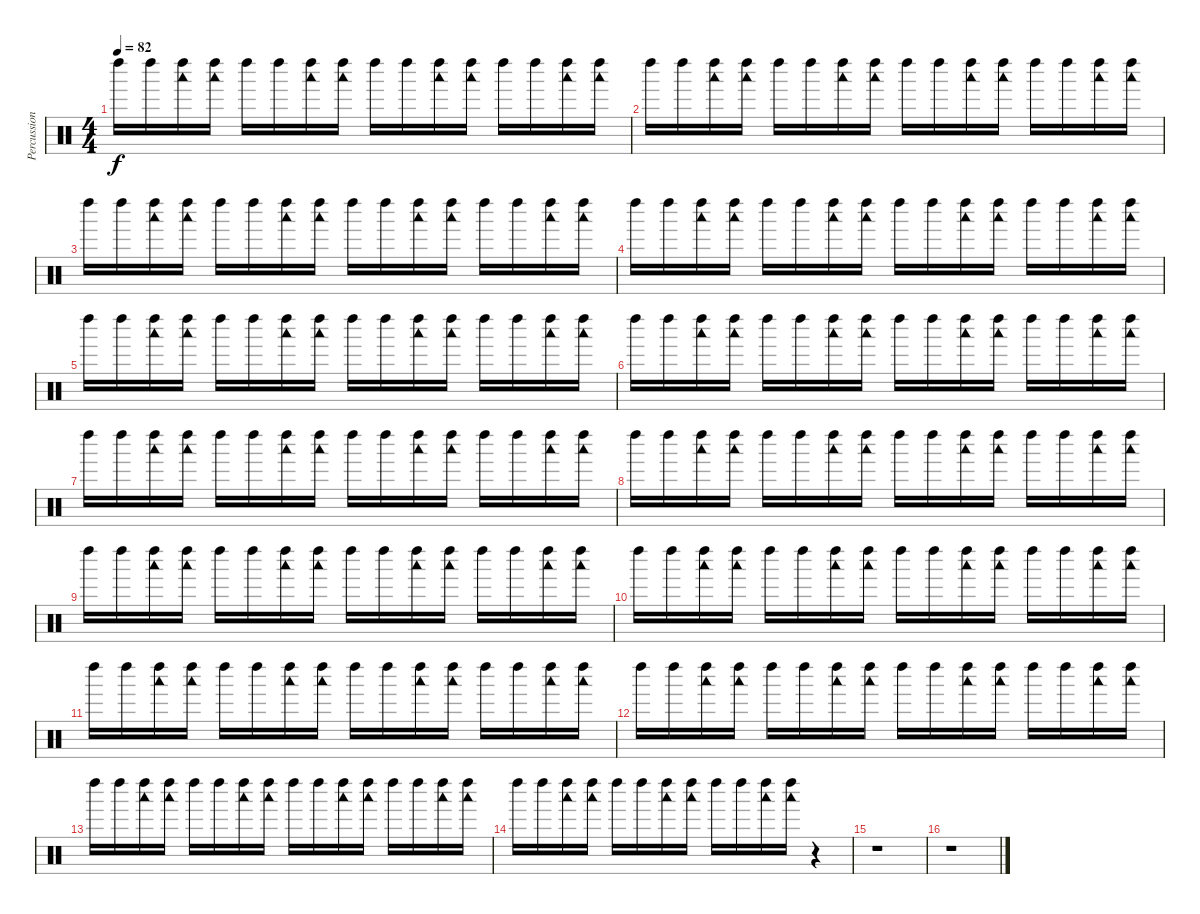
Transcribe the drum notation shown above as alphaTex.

\track ("Percussion" "Percussion") {instrument percussion}
\staff {score}
\articulation defaults
\ts (4 4)
\tempo 82
\clef neutral
\ks c "Left Maraca (hit)".16{dy f} "Left Maraca (hit)".16
("Left Maraca (hit)" "Woodblock low (hit)").16 ("Left Maraca (hit)" "Woodblock low (hit)").16 "Left Maraca (hit)".16 "Left Maraca (hit)".16 ("Left Maraca (hit)" "Woodblock low (hit)").16 ("Left Maraca (hit)" "Woodblock low (hit)").16 "Left Maraca (hit)".16 "Left Maraca (hit)".16 ("Left Maraca (hit)" "Woodblock low (hit)").16 ("Left Maraca (hit)" "Woodblock low (hit)").16 "Left Maraca (hit)".16 "Left Maraca (hit)".16 ("Left Maraca (hit)" "Woodblock low (hit)").16 ("Left Maraca (hit)" "Woodblock low (hit)").16 |
"Left Maraca (hit)".16 "Left Maraca (hit)".16 ("Left Maraca (hit)" "Woodblock low (hit)").16 ("Left Maraca (hit)" "Woodblock low (hit)").16 "Left Maraca (hit)".16 "Left Maraca (hit)".16 ("Left Maraca (hit)" "Woodblock low (hit)").16 ("Left Maraca (hit)" "Woodblock low (hit)").16 "Left Maraca (hit)".16 "Left Maraca (hit)".16 ("Left Maraca (hit)" "Woodblock low (hit)").16 ("Left Maraca (hit)" "Woodblock low (hit)").16 "Left Maraca (hit)".16 "Left Maraca (hit)".16 ("Left Maraca (hit)" "Woodblock low (hit)").16 ("Left Maraca (hit)" "Woodblock low (hit)").16 |
"Left Maraca (hit)".16 "Left Maraca (hit)".16 ("Left Maraca (hit)" "Woodblock low (hit)").16 ("Left Maraca (hit)" "Woodblock low (hit)").16 "Left Maraca (hit)".16 "Left Maraca (hit)".16 ("Left Maraca (hit)" "Woodblock low (hit)").16 ("Left Maraca (hit)" "Woodblock low (hit)").16 "Left Maraca (hit)".16 "Left Maraca (hit)".16 ("Left Maraca (hit)" "Woodblock low (hit)").16 ("Left Maraca (hit)" "Woodblock low (hit)").16 "Left Maraca (hit)".16 "Left Maraca (hit)".16 ("Left Maraca (hit)" "Woodblock low (hit)").16 ("Left Maraca (hit)" "Woodblock low (hit)").16 |
"Left Maraca (hit)".16 "Left Maraca (hit)".16 ("Left Maraca (hit)" "Woodblock low (hit)").16 ("Left Maraca (hit)" "Woodblock low (hit)").16 "Left Maraca (hit)".16 "Left Maraca (hit)".16 ("Left Maraca (hit)" "Woodblock low (hit)").16 ("Left Maraca (hit)" "Woodblock low (hit)").16 "Left Maraca (hit)".16 "Left Maraca (hit)".16 ("Left Maraca (hit)" "Woodblock low (hit)").16 ("Left Maraca (hit)" "Woodblock low (hit)").16 "Left Maraca (hit)".16 "Left Maraca (hit)".16 ("Left Maraca (hit)" "Woodblock low (hit)").16 ("Left Maraca (hit)" "Woodblock low (hit)").16 |
"Left Maraca (hit)".16 "Left Maraca (hit)".16 ("Left Maraca (hit)" "Woodblock low (hit)").16 ("Left Maraca (hit)" "Woodblock low (hit)").16 "Left Maraca (hit)".16 "Left Maraca (hit)".16 ("Left Maraca (hit)" "Woodblock low (hit)").16 ("Left Maraca (hit)" "Woodblock low (hit)").16 "Left Maraca (hit)".16 "Left Maraca (hit)".16 ("Left Maraca (hit)" "Woodblock low (hit)").16 ("Left Maraca (hit)" "Woodblock low (hit)").16 "Left Maraca (hit)".16 "Left Maraca (hit)".16 ("Left Maraca (hit)" "Woodblock low (hit)").16 ("Left Maraca (hit)" "Woodblock low (hit)").16 |
"Left Maraca (hit)".16 "Left Maraca (hit)".16 ("Left Maraca (hit)" "Woodblock low (hit)").16 ("Left Maraca (hit)" "Woodblock low (hit)").16 "Left Maraca (hit)".16 "Left Maraca (hit)".16 ("Left Maraca (hit)" "Woodblock low (hit)").16 ("Left Maraca (hit)" "Woodblock low (hit)").16 "Left Maraca (hit)".16 "Left Maraca (hit)".16 ("Left Maraca (hit)" "Woodblock low (hit)").16 ("Left Maraca (hit)" "Woodblock low (hit)").16 "Left Maraca (hit)".16 "Left Maraca (hit)".16 ("Left Maraca (hit)" "Woodblock low (hit)").16 ("Left Maraca (hit)" "Woodblock low (hit)").16 |
"Left Maraca (hit)".16 "Left Maraca (hit)".16 ("Left Maraca (hit)" "Woodblock low (hit)").16 ("Left Maraca (hit)" "Woodblock low (hit)").16 "Left Maraca (hit)".16 "Left Maraca (hit)".16 ("Left Maraca (hit)" "Woodblock low (hit)").16 ("Left Maraca (hit)" "Woodblock low (hit)").16 "Left Maraca (hit)".16 "Left Maraca (hit)".16 ("Left Maraca (hit)" "Woodblock low (hit)").16 ("Left Maraca (hit)" "Woodblock low (hit)").16 "Left Maraca (hit)".16 "Left Maraca (hit)".16 ("Left Maraca (hit)" "Woodblock low (hit)").16 ("Left Maraca (hit)" "Woodblock low (hit)").16 |
"Left Maraca (hit)".16 "Left Maraca (hit)".16 ("Left Maraca (hit)" "Woodblock low (hit)").16 ("Left Maraca (hit)" "Woodblock low (hit)").16 "Left Maraca (hit)".16 "Left Maraca (hit)".16 ("Left Maraca (hit)" "Woodblock low (hit)").16 ("Left Maraca (hit)" "Woodblock low (hit)").16 "Left Maraca (hit)".16 "Left Maraca (hit)".16 ("Left Maraca (hit)" "Woodblock low (hit)").16 ("Left Maraca (hit)" "Woodblock low (hit)").16 "Left Maraca (hit)".16 "Left Maraca (hit)".16 ("Left Maraca (hit)" "Woodblock low (hit)").16 ("Left Maraca (hit)" "Woodblock low (hit)").16 |
"Left Maraca (hit)".16 "Left Maraca (hit)".16 ("Left Maraca (hit)" "Woodblock low (hit)").16 ("Left Maraca (hit)" "Woodblock low (hit)").16 "Left Maraca (hit)".16 "Left Maraca (hit)".16 ("Left Maraca (hit)" "Woodblock low (hit)").16 ("Left Maraca (hit)" "Woodblock low (hit)").16 "Left Maraca (hit)".16 "Left Maraca (hit)".16 ("Left Maraca (hit)" "Woodblock low (hit)").16 ("Left Maraca (hit)" "Woodblock low (hit)").16 "Left Maraca (hit)".16 "Left Maraca (hit)".16 ("Left Maraca (hit)" "Woodblock low (hit)").16 ("Left Maraca (hit)" "Woodblock low (hit)").16 |
"Left Maraca (hit)".16 "Left Maraca (hit)".16 ("Left Maraca (hit)" "Woodblock low (hit)").16 ("Left Maraca (hit)" "Woodblock low (hit)").16 "Left Maraca (hit)".16 "Left Maraca (hit)".16 ("Left Maraca (hit)" "Woodblock low (hit)").16 ("Left Maraca (hit)" "Woodblock low (hit)").16 "Left Maraca (hit)".16 "Left Maraca (hit)".16 ("Left Maraca (hit)" "Woodblock low (hit)").16 ("Left Maraca (hit)" "Woodblock low (hit)").16 "Left Maraca (hit)".16 "Left Maraca (hit)".16 ("Left Maraca (hit)" "Woodblock low (hit)").16 ("Left Maraca (hit)" "Woodblock low (hit)").16 |
"Left Maraca (hit)".16 "Left Maraca (hit)".16 ("Left Maraca (hit)" "Woodblock low (hit)").16 ("Left Maraca (hit)" "Woodblock low (hit)").16 "Left Maraca (hit)".16 "Left Maraca (hit)".16 ("Left Maraca (hit)" "Woodblock low (hit)").16 ("Left Maraca (hit)" "Woodblock low (hit)").16 "Left Maraca (hit)".16 "Left Maraca (hit)".16 ("Left Maraca (hit)" "Woodblock low (hit)").16 ("Left Maraca (hit)" "Woodblock low (hit)").16 "Left Maraca (hit)".16 "Left Maraca (hit)".16 ("Left Maraca (hit)" "Woodblock low (hit)").16 ("Left Maraca (hit)" "Woodblock low (hit)").16 |
"Left Maraca (hit)".16 "Left Maraca (hit)".16 ("Left Maraca (hit)" "Woodblock low (hit)").16 ("Left Maraca (hit)" "Woodblock low (hit)").16 "Left Maraca (hit)".16 "Left Maraca (hit)".16 ("Left Maraca (hit)" "Woodblock low (hit)").16 ("Left Maraca (hit)" "Woodblock low (hit)").16 "Left Maraca (hit)".16 "Left Maraca (hit)".16 ("Left Maraca (hit)" "Woodblock low (hit)").16 ("Left Maraca (hit)" "Woodblock low (hit)").16 "Left Maraca (hit)".16 "Left Maraca (hit)".16 ("Left Maraca (hit)" "Woodblock low (hit)").16 ("Left Maraca (hit)" "Woodblock low (hit)").16 |
"Left Maraca (hit)".16 "Left Maraca (hit)".16 ("Left Maraca (hit)" "Woodblock low (hit)").16 ("Left Maraca (hit)" "Woodblock low (hit)").16 "Left Maraca (hit)".16 "Left Maraca (hit)".16 ("Left Maraca (hit)" "Woodblock low (hit)").16 ("Left Maraca (hit)" "Woodblock low (hit)").16 "Left Maraca (hit)".16 "Left Maraca (hit)".16 ("Left Maraca (hit)" "Woodblock low (hit)").16 ("Left Maraca (hit)" "Woodblock low (hit)").16 "Left Maraca (hit)".16 "Left Maraca (hit)".16 ("Left Maraca (hit)" "Woodblock low (hit)").16 ("Left Maraca (hit)" "Woodblock low (hit)").16 |
"Left Maraca (hit)".16 "Left Maraca (hit)".16 ("Left Maraca (hit)" "Woodblock low (hit)").16 ("Left Maraca (hit)" "Woodblock low (hit)").16 "Left Maraca (hit)".16 "Left Maraca (hit)".16 ("Left Maraca (hit)" "Woodblock low (hit)").16 ("Left Maraca (hit)" "Woodblock low (hit)").16 "Left Maraca (hit)".16 "Left Maraca (hit)".16 ("Left Maraca (hit)" "Woodblock low (hit)").16 ("Left Maraca (hit)" "Woodblock low (hit)").16 r.4 |
r.1 |
r.1
